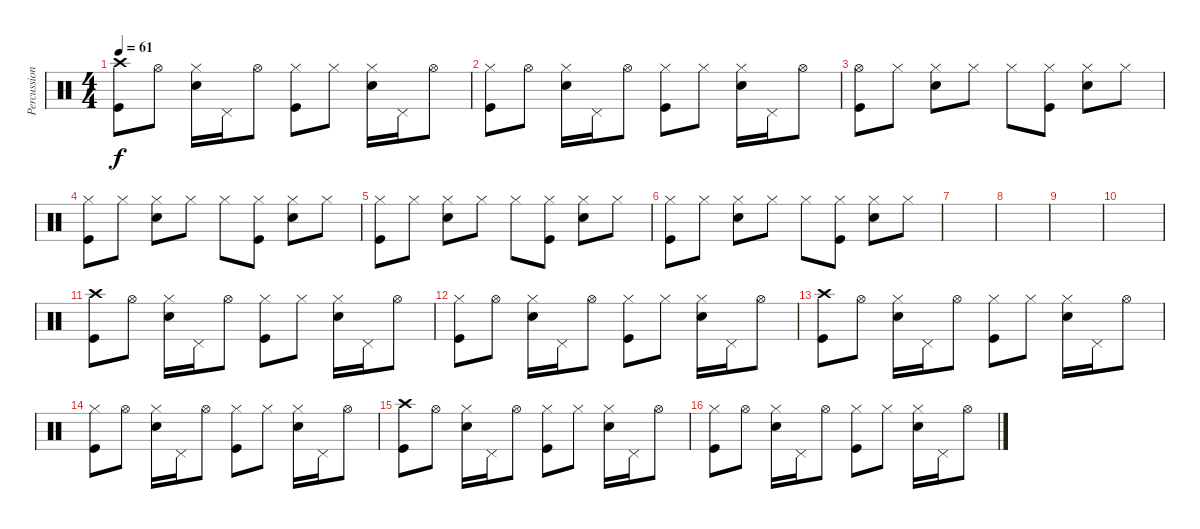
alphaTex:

\track ("Percussion" "Percussion") {instrument percussion}
\staff {score}
\articulation defaults
\ts (4 4)
\tempo 61
\clef neutral
\ks c
("Kick (hit)" "Crash high (hit)").8{dy f} "Hi-Hat (open)".8 ("Snare (hit) 2" "Hi-Hat (closed)").16 "Pedal Hi-Hat (hit)".16 "Hi-Hat (open)".8 ("Kick (hit)" "Hi-Hat (closed)").8 "Hi-Hat (closed)".8 ("Snare (hit) 2" "Hi-Hat (closed)").16 "Pedal Hi-Hat (hit)".16 "Hi-Hat (open)".8 |
("Kick (hit)" "Hi-Hat (closed)").8 "Hi-Hat (open)".8 ("Snare (hit) 2" "Hi-Hat (closed)").16 "Pedal Hi-Hat (hit)".16 "Hi-Hat (open)".8 ("Kick (hit)" "Hi-Hat (closed)").8 "Hi-Hat (closed)".8 ("Snare (hit) 2" "Hi-Hat (closed)").16 "Pedal Hi-Hat (hit)".16 "Hi-Hat (open)".8 |
("Kick (hit)" "Hi-Hat (open)").8 "Hi-Hat (closed)".8 ("Snare (hit) 2" "Hi-Hat (closed)").8 "Hi-Hat (closed)".8 "Hi-Hat (closed)".8 ("Kick (hit)" "Hi-Hat (closed)").8 ("Snare (hit) 2" "Hi-Hat (closed)").8 "Hi-Hat (closed)".8 |
("Kick (hit)" "Hi-Hat (closed)").8 "Hi-Hat (closed)".8 ("Snare (hit) 2" "Hi-Hat (closed)").8 "Hi-Hat (closed)".8 "Hi-Hat (closed)".8 ("Kick (hit)" "Hi-Hat (closed)").8 ("Snare (hit) 2" "Hi-Hat (closed)").8 "Hi-Hat (closed)".8 |
("Kick (hit)" "Hi-Hat (closed)").8 "Hi-Hat (closed)".8 ("Snare (hit) 2" "Hi-Hat (closed)").8 "Hi-Hat (closed)".8 "Hi-Hat (closed)".8 ("Kick (hit)" "Hi-Hat (closed)").8 ("Snare (hit) 2" "Hi-Hat (closed)").8 "Hi-Hat (closed)".8 |
("Kick (hit)" "Hi-Hat (closed)").8 "Hi-Hat (closed)".8 ("Snare (hit) 2" "Hi-Hat (closed)").8 "Hi-Hat (closed)".8 "Hi-Hat (closed)".8 ("Kick (hit)" "Hi-Hat (closed)").8 ("Snare (hit) 2" "Hi-Hat (closed)").8 "Hi-Hat (closed)".8 |
|
|
|
|
("Kick (hit)" "Crash high (hit)").8 "Hi-Hat (open)".8 ("Snare (hit) 2" "Hi-Hat (closed)").16 "Pedal Hi-Hat (hit)".16 "Hi-Hat (open)".8 ("Kick (hit)" "Hi-Hat (closed)").8 "Hi-Hat (closed)".8 ("Snare (hit) 2" "Hi-Hat (closed)").16 "Pedal Hi-Hat (hit)".16 "Hi-Hat (open)".8 |
("Kick (hit)" "Hi-Hat (closed)").8 "Hi-Hat (open)".8 ("Snare (hit) 2" "Hi-Hat (closed)").16 "Pedal Hi-Hat (hit)".16 "Hi-Hat (open)".8 ("Kick (hit)" "Hi-Hat (closed)").8 "Hi-Hat (closed)".8 ("Snare (hit) 2" "Hi-Hat (closed)").16 "Pedal Hi-Hat (hit)".16 "Hi-Hat (open)".8 |
("Kick (hit)" "Crash high (hit)").8 "Hi-Hat (open)".8 ("Snare (hit) 2" "Hi-Hat (closed)").16 "Pedal Hi-Hat (hit)".16 "Hi-Hat (open)".8 ("Kick (hit)" "Hi-Hat (closed)").8 "Hi-Hat (closed)".8 ("Snare (hit) 2" "Hi-Hat (closed)").16 "Pedal Hi-Hat (hit)".16 "Hi-Hat (open)".8 |
("Kick (hit)" "Hi-Hat (closed)").8 "Hi-Hat (open)".8 ("Snare (hit) 2" "Hi-Hat (closed)").16 "Pedal Hi-Hat (hit)".16 "Hi-Hat (open)".8 ("Kick (hit)" "Hi-Hat (closed)").8 "Hi-Hat (closed)".8 ("Snare (hit) 2" "Hi-Hat (closed)").16 "Pedal Hi-Hat (hit)".16 "Hi-Hat (open)".8 |
("Kick (hit)" "Crash high (hit)").8 "Hi-Hat (open)".8 ("Snare (hit) 2" "Hi-Hat (closed)").16 "Pedal Hi-Hat (hit)".16 "Hi-Hat (open)".8 ("Kick (hit)" "Hi-Hat (closed)").8 "Hi-Hat (closed)".8 ("Snare (hit) 2" "Hi-Hat (closed)").16 "Pedal Hi-Hat (hit)".16 "Hi-Hat (open)".8 |
("Kick (hit)" "Hi-Hat (closed)").8 "Hi-Hat (open)".8 ("Snare (hit) 2" "Hi-Hat (closed)").16 "Pedal Hi-Hat (hit)".16 "Hi-Hat (open)".8 ("Kick (hit)" "Hi-Hat (closed)").8 "Hi-Hat (closed)".8 ("Snare (hit) 2" "Hi-Hat (closed)").16 "Pedal Hi-Hat (hit)".16 "Hi-Hat (open)".8
